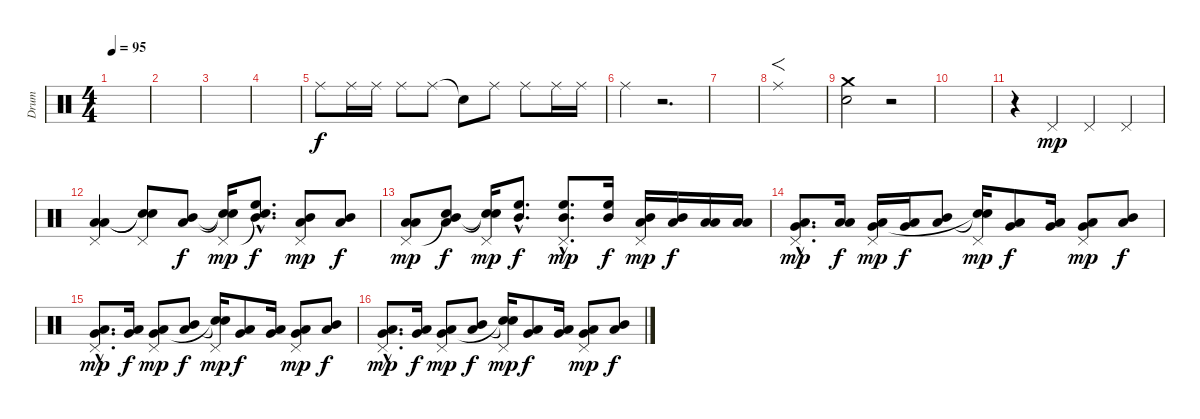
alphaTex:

\track ("Drum" "Drum") {instrument percussion}
\staff {score}
\articulation defaults
\ts (4 4)
\tempo 95
\clef neutral
\ks c
|
|
|
|
"Ride (middle)".8 "Ride (middle)".16 "Ride (middle)".16 "Ride (middle)".8 "Ride (middle)".8 "Snare (hit)"{t}.8 "Ride (middle)".8 "Ride (middle)".8 "Ride (middle)".16 "Ride (middle)".16 |
"Ride (middle)".4 r.2{d} |
|
"Ride (middle)"{tr (51 64)}.1{f} |
("Crash medium (hit)" "Electric Snare (hit)").2 r.2 |
|
r.4 "Pedal Hi-Hat (hit)".4{dy mp} "Pedal Hi-Hat (hit)".4 "Pedal Hi-Hat (hit)".4 |
("Low Floor Tom (hit)" "Low Tom (hit)" "Pedal Hi-Hat (hit)").4 ("Snare (hit)"{t} "Snare (hit)"{t} "Pedal Hi-Hat (hit)").8 ("Mid Tom (hit)" "Low Tom (hit)").8{dy f} ("Snare (hit)"{t} "Snare (hit)"{t} "Pedal Hi-Hat (hit)").16{dy mp} ("High Floor Tom (hit)"{hac} "Mid Tom (hit)"{hac} "Snare (hit)"{hac t}).8{d dy f} ("Low Tom (hit)" "Mid Tom (hit)" "Pedal Hi-Hat (hit)").8{dy mp} ("Mid Tom (hit)" "Low Tom (hit)").8{dy f} |
("Low Floor Tom (hit)" "Low Tom (hit)" "Pedal Hi-Hat (hit)").8{dy mp} ("Low Tom (hit)" "Mid Tom (hit)" "Snare (hit)"{t}).8{dy f} ("Snare (hit)"{t} "Snare (hit)"{t} "Pedal Hi-Hat (hit)").16{dy mp} ("High Floor Tom (hit)"{hac} "Mid Tom (hit)"{hac}).8{d dy f} ("High Floor Tom (hit)"{hac} "Mid Tom (hit)"{hac} "Pedal Hi-Hat (hit)"{hac}).8{d dy mp} ("High Floor Tom (hit)" "Mid Tom (hit)").16{dy f} ("Mid Tom (hit)" "Low Tom (hit)" "Pedal Hi-Hat (hit)").16{dy mp} ("Mid Tom (hit)" "Low Tom (hit)").16{dy f} ("Low Tom (hit)" "Low Floor Tom (hit)").16 ("Low Floor Tom (hit)" "Low Tom (hit)").16 |
("Pedal Hi-Hat (hit)"{hac} "Very Low Tom (hit)"{hac} "Low Floor Tom (hit)"{hac}).8{d dy mp} ("Low Tom (hit)" "Low Floor Tom (hit)").16{dy f} ("Pedal Hi-Hat (hit)" "Low Tom (hit)" "Very Low Tom (hit)").16{dy mp} ("Low Tom (hit)" "Very Low Tom (hit)").16{dy f} ("Mid Tom (hit)" "Low Tom (hit)").8 ("Pedal Hi-Hat (hit)" "Snare (hit)"{t} "Snare (hit)"{t}).16{dy mp} ("Low Tom (hit)" "Very Low Tom (hit)").8{dy f} ("Low Tom (hit)" "Very Low Tom (hit)").16 ("Pedal Hi-Hat (hit)" "Very Low Tom (hit)" "Low Floor Tom (hit)").8{dy mp} ("Mid Tom (hit)" "Low Tom (hit)").8{dy f} |
("Pedal Hi-Hat (hit)"{hac} "Very Low Tom (hit)"{hac} "Low Floor Tom (hit)"{hac}).8{d dy mp} ("Low Tom (hit)" "Very Low Tom (hit)").16{dy f} ("Pedal Hi-Hat (hit)" "Low Tom (hit)" "Very Low Tom (hit)").8{dy mp} ("Mid Tom (hit)" "Low Tom (hit)").8{dy f} ("Pedal Hi-Hat (hit)" "Snare (hit)"{t} "Snare (hit)"{t}).16{dy mp} ("Low Tom (hit)" "Very Low Tom (hit)").8{dy f} ("Low Tom (hit)" "Very Low Tom (hit)").16 ("Pedal Hi-Hat (hit)" "Very Low Tom (hit)" "Low Floor Tom (hit)").8{dy mp} ("Mid Tom (hit)" "Low Tom (hit)").8{dy f} |
("Pedal Hi-Hat (hit)"{hac} "Very Low Tom (hit)"{hac} "Low Floor Tom (hit)"{hac}).8{d dy mp} ("Low Tom (hit)" "Very Low Tom (hit)").16{dy f} ("Pedal Hi-Hat (hit)" "Low Tom (hit)" "Very Low Tom (hit)").8{dy mp} ("Mid Tom (hit)" "Low Tom (hit)").8{dy f} ("Pedal Hi-Hat (hit)" "Snare (hit)"{t} "Snare (hit)"{t}).16{dy mp} ("Low Tom (hit)" "Very Low Tom (hit)").8{dy f} ("Low Tom (hit)" "Very Low Tom (hit)").16 ("Pedal Hi-Hat (hit)" "Very Low Tom (hit)" "Low Floor Tom (hit)").8{dy mp} ("Mid Tom (hit)" "Low Tom (hit)").8{dy f}
